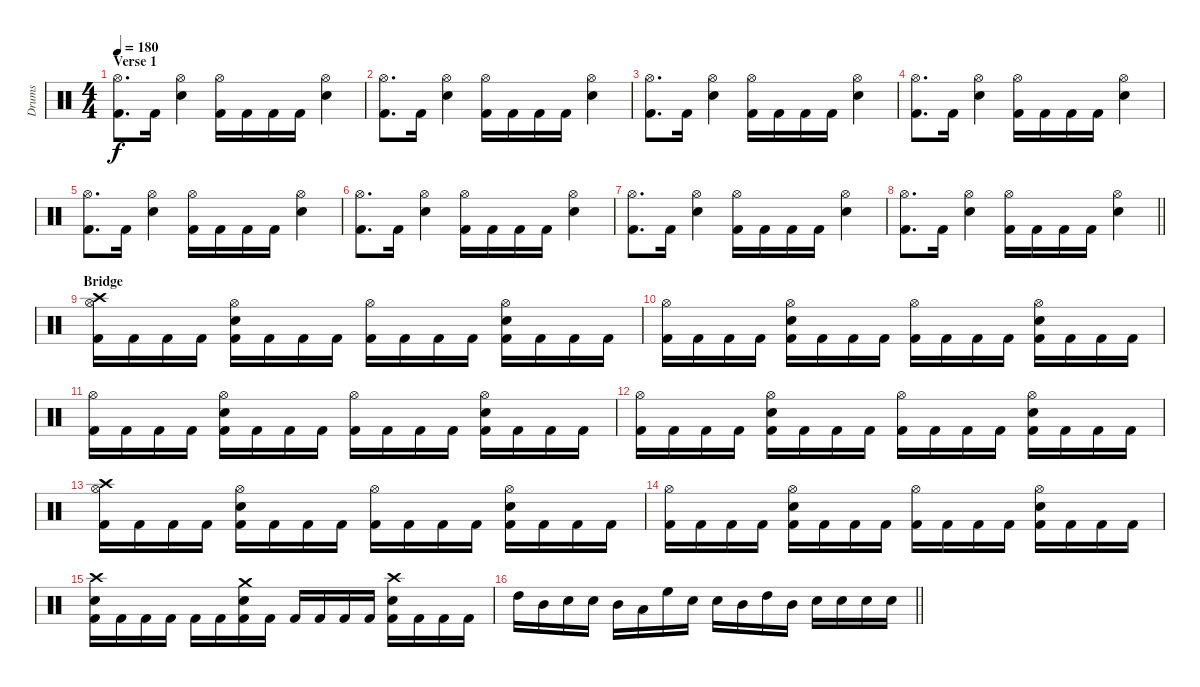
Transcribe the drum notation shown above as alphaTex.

\track ("Drums" "Drums") {instrument percussion}
\staff {score}
\articulation defaults
\ts (4 4)
\section ("" "Verse 1")
\tempo 180
\clef neutral
\ks c
("Hi-Hat (open)" "Kick (hit) 2").8{d dy f} "Kick (hit) 2".16 ("Hi-Hat (open)" "Electric Snare (hit)").4 ("Hi-Hat (open)" "Kick (hit) 2").16 "Kick (hit) 2".16 "Kick (hit) 2".16 "Kick (hit) 2".16 ("Hi-Hat (open)" "Electric Snare (hit)").4 |
("Hi-Hat (open)" "Kick (hit) 2").8{d} "Kick (hit) 2".16 ("Hi-Hat (open)" "Electric Snare (hit)").4 ("Hi-Hat (open)" "Kick (hit) 2").16 "Kick (hit) 2".16 "Kick (hit) 2".16 "Kick (hit) 2".16 ("Hi-Hat (open)" "Electric Snare (hit)").4 |
("Hi-Hat (open)" "Kick (hit) 2").8{d} "Kick (hit) 2".16 ("Hi-Hat (open)" "Electric Snare (hit)").4 ("Hi-Hat (open)" "Kick (hit) 2").16 "Kick (hit) 2".16 "Kick (hit) 2".16 "Kick (hit) 2".16 ("Hi-Hat (open)" "Electric Snare (hit)").4 |
("Hi-Hat (open)" "Kick (hit) 2").8{d} "Kick (hit) 2".16 ("Hi-Hat (open)" "Electric Snare (hit)").4 ("Hi-Hat (open)" "Kick (hit) 2").16 "Kick (hit) 2".16 "Kick (hit) 2".16 "Kick (hit) 2".16 ("Hi-Hat (open)" "Electric Snare (hit)").4 |
("Hi-Hat (open)" "Kick (hit) 2").8{d} "Kick (hit) 2".16 ("Hi-Hat (open)" "Electric Snare (hit)").4 ("Hi-Hat (open)" "Kick (hit) 2").16 "Kick (hit) 2".16 "Kick (hit) 2".16 "Kick (hit) 2".16 ("Hi-Hat (open)" "Electric Snare (hit)").4 |
("Hi-Hat (open)" "Kick (hit) 2").8{d} "Kick (hit) 2".16 ("Hi-Hat (open)" "Electric Snare (hit)").4 ("Hi-Hat (open)" "Kick (hit) 2").16 "Kick (hit) 2".16 "Kick (hit) 2".16 "Kick (hit) 2".16 ("Hi-Hat (open)" "Electric Snare (hit)").4 |
("Hi-Hat (open)" "Kick (hit) 2").8{d} "Kick (hit) 2".16 ("Hi-Hat (open)" "Electric Snare (hit)").4 ("Hi-Hat (open)" "Kick (hit) 2").16 "Kick (hit) 2".16 "Kick (hit) 2".16 "Kick (hit) 2".16 ("Hi-Hat (open)" "Electric Snare (hit)").4 |
\barLineRight lightlight
("Hi-Hat (open)" "Kick (hit) 2").8{d} "Kick (hit) 2".16 ("Hi-Hat (open)" "Electric Snare (hit)").4 ("Hi-Hat (open)" "Kick (hit) 2").16 "Kick (hit) 2".16 "Kick (hit) 2".16 "Kick (hit) 2".16 ("Hi-Hat (open)" "Electric Snare (hit)").4 |
\section ("" "Bridge")
("Crash high (hit)" "Hi-Hat (open)" "Kick (hit) 2").16 "Kick (hit) 2".16 "Kick (hit) 2".16 "Kick (hit) 2".16 ("Hi-Hat (open)" "Electric Snare (hit)" "Kick (hit) 2").16 "Kick (hit) 2".16 "Kick (hit) 2".16 "Kick (hit) 2".16 ("Hi-Hat (open)" "Kick (hit) 2").16 "Kick (hit) 2".16 "Kick (hit) 2".16 "Kick (hit) 2".16 ("Hi-Hat (open)" "Electric Snare (hit)" "Kick (hit) 2").16 "Kick (hit) 2".16 "Kick (hit) 2".16 "Kick (hit) 2".16 |
("Hi-Hat (open)" "Kick (hit) 2").16 "Kick (hit) 2".16 "Kick (hit) 2".16 "Kick (hit) 2".16 ("Hi-Hat (open)" "Electric Snare (hit)" "Kick (hit) 2").16 "Kick (hit) 2".16 "Kick (hit) 2".16 "Kick (hit) 2".16 ("Hi-Hat (open)" "Kick (hit) 2").16 "Kick (hit) 2".16 "Kick (hit) 2".16 "Kick (hit) 2".16 ("Hi-Hat (open)" "Electric Snare (hit)" "Kick (hit) 2").16 "Kick (hit) 2".16 "Kick (hit) 2".16 "Kick (hit) 2".16 |
("Hi-Hat (open)" "Kick (hit) 2").16 "Kick (hit) 2".16 "Kick (hit) 2".16 "Kick (hit) 2".16 ("Hi-Hat (open)" "Electric Snare (hit)" "Kick (hit) 2").16 "Kick (hit) 2".16 "Kick (hit) 2".16 "Kick (hit) 2".16 ("Hi-Hat (open)" "Kick (hit) 2").16 "Kick (hit) 2".16 "Kick (hit) 2".16 "Kick (hit) 2".16 ("Hi-Hat (open)" "Electric Snare (hit)" "Kick (hit) 2").16 "Kick (hit) 2".16 "Kick (hit) 2".16 "Kick (hit) 2".16 |
("Hi-Hat (open)" "Kick (hit) 2").16 "Kick (hit) 2".16 "Kick (hit) 2".16 "Kick (hit) 2".16 ("Hi-Hat (open)" "Electric Snare (hit)" "Kick (hit) 2").16 "Kick (hit) 2".16 "Kick (hit) 2".16 "Kick (hit) 2".16 ("Hi-Hat (open)" "Kick (hit) 2").16 "Kick (hit) 2".16 "Kick (hit) 2".16 "Kick (hit) 2".16 ("Hi-Hat (open)" "Electric Snare (hit)" "Kick (hit) 2").16 "Kick (hit) 2".16 "Kick (hit) 2".16 "Kick (hit) 2".16 |
("Crash high (hit)" "Hi-Hat (open)" "Kick (hit) 2").16 "Kick (hit) 2".16 "Kick (hit) 2".16 "Kick (hit) 2".16 ("Hi-Hat (open)" "Electric Snare (hit)" "Kick (hit) 2").16 "Kick (hit) 2".16 "Kick (hit) 2".16 "Kick (hit) 2".16 ("Hi-Hat (open)" "Kick (hit) 2").16 "Kick (hit) 2".16 "Kick (hit) 2".16 "Kick (hit) 2".16 ("Hi-Hat (open)" "Electric Snare (hit)" "Kick (hit) 2").16 "Kick (hit) 2".16 "Kick (hit) 2".16 "Kick (hit) 2".16 |
("Hi-Hat (open)" "Kick (hit) 2").16 "Kick (hit) 2".16 "Kick (hit) 2".16 "Kick (hit) 2".16 ("Hi-Hat (open)" "Electric Snare (hit)" "Kick (hit) 2").16 "Kick (hit) 2".16 "Kick (hit) 2".16 "Kick (hit) 2".16 ("Hi-Hat (open)" "Kick (hit) 2").16 "Kick (hit) 2".16 "Kick (hit) 2".16 "Kick (hit) 2".16 ("Hi-Hat (open)" "Electric Snare (hit)" "Kick (hit) 2").16 "Kick (hit) 2".16 "Kick (hit) 2".16 "Kick (hit) 2".16 |
("Crash high (hit)" "Electric Snare (hit)" "Kick (hit) 2").16 "Kick (hit) 2".16 "Kick (hit) 2".16 "Kick (hit) 2".16 "Kick (hit) 2".16 "Kick (hit) 2".16 ("Crash medium (hit)" "Electric Snare (hit)" "Kick (hit) 2").16 "Kick (hit) 2".16 "Kick (hit) 2".16 "Kick (hit) 2".16 "Kick (hit) 2".16 "Kick (hit) 2".16 ("Crash high (hit)" "Electric Snare (hit)" "Kick (hit) 2").16 "Kick (hit) 2".16 "Kick (hit) 2".16 "Kick (hit) 2".16 |
\barLineRight lightlight "High Tom (hit)".16 "Mid Tom (hit)".16 "Electric Snare (hit)".16 "Electric Snare (hit)".16 "Mid Tom (hit)".16 "Low Tom (hit)".16 "High Floor Tom (hit)".16 "Electric Snare (hit)".16 "Electric Snare (hit)".16 "Mid Tom (hit)".16 "High Tom (hit)".16 "Mid Tom (hit)".16 "Electric Snare (hit)".16 "Electric Snare (hit)".16 "Electric Snare (hit)".16 "Electric Snare (hit)".16
